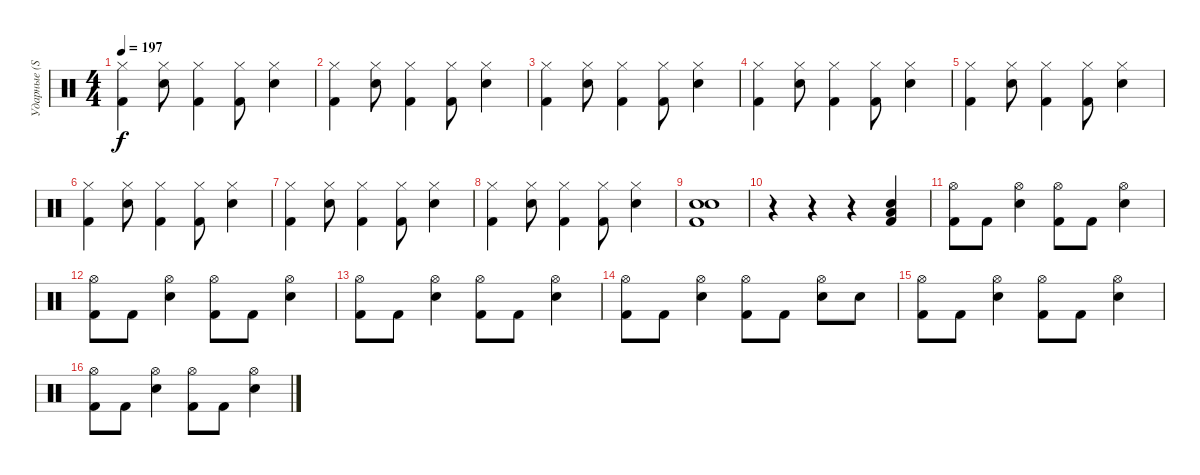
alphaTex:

\track ("Ударные (Stevo32)" "Ударные (S") {instrument percussion}
\staff {score}
\articulation defaults
\ts (4 4)
\tempo 197
\clef neutral
\ks c
("Hi-Hat (closed)" "Kick (hit) 2").4{dy f} ("Hi-Hat (closed)" "Snare (hit) 2").8 ("Hi-Hat (closed)" "Kick (hit) 2").4 ("Hi-Hat (closed)" "Kick (hit) 2").8 ("Hi-Hat (closed)" "Snare (hit) 2").4 |
("Hi-Hat (closed)" "Kick (hit) 2").4 ("Hi-Hat (closed)" "Snare (hit) 2").8 ("Hi-Hat (closed)" "Kick (hit) 2").4 ("Hi-Hat (closed)" "Kick (hit) 2").8 ("Hi-Hat (closed)" "Snare (hit) 2").4 |
("Hi-Hat (closed)" "Kick (hit) 2").4 ("Hi-Hat (closed)" "Snare (hit) 2").8 ("Hi-Hat (closed)" "Kick (hit) 2").4 ("Hi-Hat (closed)" "Kick (hit) 2").8 ("Hi-Hat (closed)" "Snare (hit) 2").4 |
("Hi-Hat (closed)" "Kick (hit) 2").4 ("Hi-Hat (closed)" "Snare (hit) 2").8 ("Hi-Hat (closed)" "Kick (hit) 2").4 ("Hi-Hat (closed)" "Kick (hit) 2").8 ("Hi-Hat (closed)" "Snare (hit) 2").4 |
("Hi-Hat (closed)" "Kick (hit) 2").4 ("Hi-Hat (closed)" "Snare (hit) 2").8 ("Hi-Hat (closed)" "Kick (hit) 2").4 ("Hi-Hat (closed)" "Kick (hit) 2").8 ("Hi-Hat (closed)" "Snare (hit) 2").4 |
("Hi-Hat (closed)" "Kick (hit) 2").4 ("Hi-Hat (closed)" "Snare (hit) 2").8 ("Hi-Hat (closed)" "Kick (hit) 2").4 ("Hi-Hat (closed)" "Kick (hit) 2").8 ("Hi-Hat (closed)" "Snare (hit) 2").4 |
("Hi-Hat (closed)" "Kick (hit) 2").4 ("Hi-Hat (closed)" "Snare (hit) 2").8 ("Hi-Hat (closed)" "Kick (hit) 2").4 ("Hi-Hat (closed)" "Kick (hit) 2").8 ("Hi-Hat (closed)" "Snare (hit) 2").4 |
("Hi-Hat (closed)" "Kick (hit) 2").4 ("Hi-Hat (closed)" "Snare (hit) 2").8 ("Hi-Hat (closed)" "Kick (hit) 2").4 ("Hi-Hat (closed)" "Kick (hit) 2").8 ("Hi-Hat (closed)" "Snare (hit) 2").4 |
("Electric Snare (hit)" "Snare (hit) 2" "Kick (hit) 2").1 |
r.4 r.4 r.4 ("Low Floor Tom (hit)" "Snare (hit) 2" "Kick (hit) 2").4 |
("Hi-Hat (open)" "Kick (hit) 2").8 "Kick (hit) 2".8 ("Hi-Hat (open)" "Snare (hit) 2").4 ("Hi-Hat (open)" "Kick (hit) 2").8 "Kick (hit) 2".8 ("Hi-Hat (open)" "Snare (hit) 2").4 |
("Hi-Hat (open)" "Kick (hit) 2").8 "Kick (hit) 2".8 ("Hi-Hat (open)" "Snare (hit) 2").4 ("Hi-Hat (open)" "Kick (hit) 2").8 "Kick (hit) 2".8 ("Hi-Hat (open)" "Snare (hit) 2").4 |
("Hi-Hat (open)" "Kick (hit) 2").8 "Kick (hit) 2".8 ("Hi-Hat (open)" "Snare (hit) 2").4 ("Hi-Hat (open)" "Kick (hit) 2").8 "Kick (hit) 2".8 ("Hi-Hat (open)" "Snare (hit) 2").4 |
("Hi-Hat (open)" "Kick (hit) 2").8 "Kick (hit) 2".8 ("Hi-Hat (open)" "Snare (hit) 2").4 ("Hi-Hat (open)" "Kick (hit) 2").8 "Kick (hit) 2".8 ("Hi-Hat (open)" "Snare (hit) 2").8 "Snare (hit) 2".8 |
("Hi-Hat (open)" "Kick (hit) 2").8 "Kick (hit) 2".8 ("Hi-Hat (open)" "Snare (hit) 2").4 ("Hi-Hat (open)" "Kick (hit) 2").8 "Kick (hit) 2".8 ("Hi-Hat (open)" "Snare (hit) 2").4 |
("Hi-Hat (open)" "Kick (hit) 2").8 "Kick (hit) 2".8 ("Hi-Hat (open)" "Snare (hit) 2").4 ("Hi-Hat (open)" "Kick (hit) 2").8 "Kick (hit) 2".8 ("Hi-Hat (open)" "Snare (hit) 2").4
